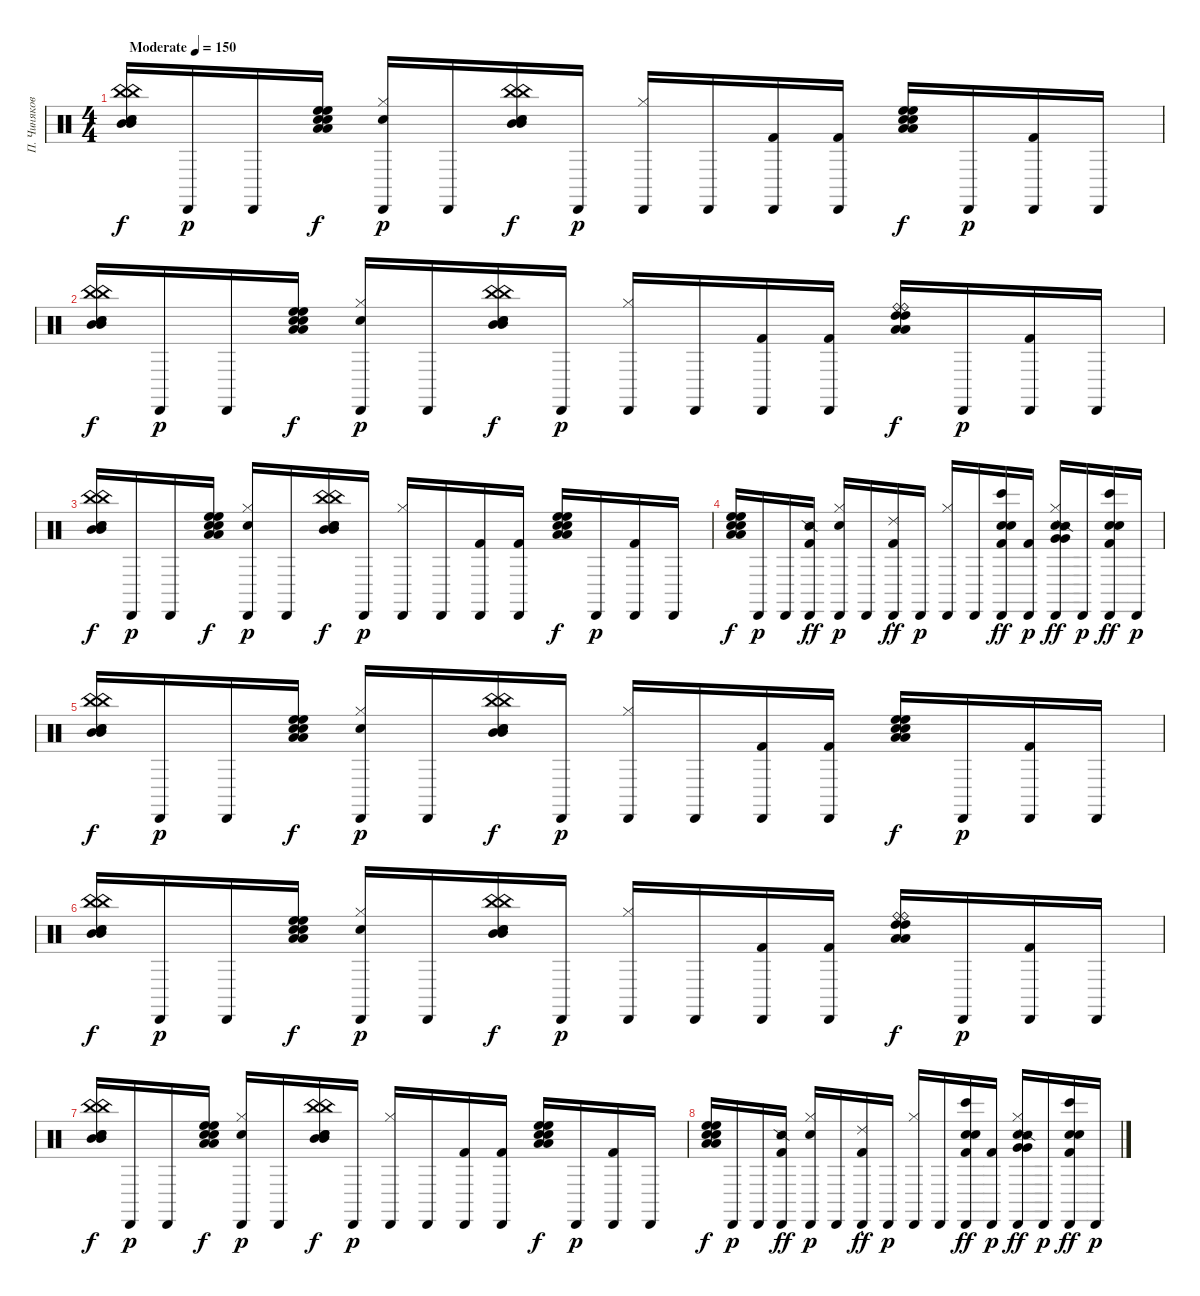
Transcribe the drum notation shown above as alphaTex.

\track ("П. Чиняков" "П. Чиняков") {instrument percussion}
\staff {score}
\articulation defaults
\ts (4 4)
\tempo (150 "Moderate")
\clef neutral
\ks c
("China (hit)" "Mid Tom (hit)" "Electric Snare (hit)" "China (hit)" "Mid Tom (hit)" "Electric Snare (hit)").16{dy f} "Cabasa (hit)".16{dy p} "Cabasa (hit)".16 ("High Floor Tom (hit)" "Low Tom (hit)" "Snare (hit) 2" "High Floor Tom (hit)" "Low Tom (hit)" "Snare (hit) 2").16{dy f} ("Hi-Hat (closed)" "Cabasa (hit)" "Snare (hit) 2").16{dy p} "Cabasa (hit)".16 ("China (hit)" "Mid Tom (hit)" "Electric Snare (hit)" "China (hit)" "Mid Tom (hit)" "Electric Snare (hit)").16{dy f} "Cabasa (hit)".16{dy p} ("Hi-Hat (closed)" "Cabasa (hit)").16 "Cabasa (hit)".16 ("Cabasa (hit)" "Kick (hit) 2").16 ("Cabasa (hit)" "Kick (hit) 2").16 ("High Floor Tom (hit)" "Low Tom (hit)" "Snare (hit) 2" "High Floor Tom (hit)" "Low Tom (hit)" "Snare (hit) 2").16{dy f} "Cabasa (hit)".16{dy p} ("Cabasa (hit)" "Kick (hit) 2").16 "Cabasa (hit)".16 |
("China (hit)" "Mid Tom (hit)" "Electric Snare (hit)" "China (hit)" "Mid Tom (hit)" "Electric Snare (hit)").16{dy f} "Cabasa (hit)".16{dy p} "Cabasa (hit)".16 ("High Floor Tom (hit)" "Low Tom (hit)" "Snare (hit) 2" "High Floor Tom (hit)" "Low Tom (hit)" "Snare (hit) 2").16{dy f} ("Hi-Hat (closed)" "Cabasa (hit)" "Snare (hit) 2").16{dy p} "Cabasa (hit)".16 ("China (hit)" "Mid Tom (hit)" "Electric Snare (hit)" "China (hit)" "Mid Tom (hit)" "Electric Snare (hit)").16{dy f} "Cabasa (hit)".16{dy p} ("Hi-Hat (closed)" "Cabasa (hit)").16 "Cabasa (hit)".16 ("Cabasa (hit)" "Kick (hit) 2").16 ("Cabasa (hit)" "Kick (hit) 2").16 ("Ride (bell)" "High Tom (hit)" "Low Floor Tom (hit)" "Ride (bell)" "High Tom (hit)" "Low Floor Tom (hit)").16{dy f} "Cabasa (hit)".16{dy p} ("Cabasa (hit)" "Kick (hit) 2").16 "Cabasa (hit)".16 |
("China (hit)" "Mid Tom (hit)" "Electric Snare (hit)" "China (hit)" "Mid Tom (hit)" "Electric Snare (hit)").16{dy f} "Cabasa (hit)".16{dy p} "Cabasa (hit)".16 ("High Floor Tom (hit)" "Low Tom (hit)" "Snare (hit) 2" "High Floor Tom (hit)" "Low Tom (hit)" "Snare (hit) 2").16{dy f} ("Hi-Hat (closed)" "Cabasa (hit)" "Snare (hit) 2").16{dy p} "Cabasa (hit)".16 ("China (hit)" "Mid Tom (hit)" "Electric Snare (hit)" "China (hit)" "Mid Tom (hit)" "Electric Snare (hit)").16{dy f} "Cabasa (hit)".16{dy p} ("Hi-Hat (closed)" "Cabasa (hit)").16 "Cabasa (hit)".16 ("Cabasa (hit)" "Kick (hit) 2").16 ("Cabasa (hit)" "Kick (hit) 2").16 ("High Floor Tom (hit)" "Low Tom (hit)" "Snare (hit) 2" "High Floor Tom (hit)" "Low Tom (hit)" "Snare (hit) 2").16{dy f} "Cabasa (hit)".16{dy p} ("Cabasa (hit)" "Kick (hit) 2").16 "Cabasa (hit)".16 |
("High Floor Tom (hit)" "Low Tom (hit)" "Snare (hit) 2" "High Floor Tom (hit)" "Low Tom (hit)" "Snare (hit) 2").16{dy f} "Cabasa (hit)".16{dy p} "Cabasa (hit)".16 ("Cabasa (hit)" "Kick (hit) 2" "Snare (side stick) 2").16{dy ff} ("Hi-Hat (closed)" "Cabasa (hit)" "Snare (hit) 2").16{dy p} "Cabasa (hit)".16 ("Cabasa (hit)" "Kick (hit) 2" "Ride (choke) 2").16{dy ff} "Cabasa (hit)".16{dy p} ("Hi-Hat (closed)" "Cabasa (hit)").16 "Cabasa (hit)".16 ("Electric Snare (hit)" "Electric Snare (hit)" "Cabasa (hit)" "Kick (hit) 2" "Bongo High (hit)").16{dy ff} ("Cabasa (hit)" "Kick (hit) 2").16{dy p} ("Very Low Tom (hit)" "Very Low Tom (hit)" "Hi-Hat (closed)" "Cabasa (hit)" "Snare (hit) 2" "Snare (side stick) 2").16{dy ff} "Cabasa (hit)".16{dy p} ("Electric Snare (hit)" "Electric Snare (hit)" "Cabasa (hit)" "Kick (hit) 2" "Bongo High (hit)").16{dy ff} "Cabasa (hit)".16{dy p} |
("China (hit)" "Mid Tom (hit)" "Electric Snare (hit)" "China (hit)" "Mid Tom (hit)" "Electric Snare (hit)").16{dy f} "Cabasa (hit)".16{dy p} "Cabasa (hit)".16 ("High Floor Tom (hit)" "Low Tom (hit)" "Snare (hit) 2" "High Floor Tom (hit)" "Low Tom (hit)" "Snare (hit) 2").16{dy f} ("Hi-Hat (closed)" "Cabasa (hit)" "Snare (hit) 2").16{dy p} "Cabasa (hit)".16 ("China (hit)" "Mid Tom (hit)" "Electric Snare (hit)" "China (hit)" "Mid Tom (hit)" "Electric Snare (hit)").16{dy f} "Cabasa (hit)".16{dy p} ("Hi-Hat (closed)" "Cabasa (hit)").16 "Cabasa (hit)".16 ("Cabasa (hit)" "Kick (hit) 2").16 ("Cabasa (hit)" "Kick (hit) 2").16 ("High Floor Tom (hit)" "Low Tom (hit)" "Snare (hit) 2" "High Floor Tom (hit)" "Low Tom (hit)" "Snare (hit) 2").16{dy f} "Cabasa (hit)".16{dy p} ("Cabasa (hit)" "Kick (hit) 2").16 "Cabasa (hit)".16 |
("China (hit)" "Mid Tom (hit)" "Electric Snare (hit)" "China (hit)" "Mid Tom (hit)" "Electric Snare (hit)").16{dy f} "Cabasa (hit)".16{dy p} "Cabasa (hit)".16 ("High Floor Tom (hit)" "Low Tom (hit)" "Snare (hit) 2" "High Floor Tom (hit)" "Low Tom (hit)" "Snare (hit) 2").16{dy f} ("Hi-Hat (closed)" "Cabasa (hit)" "Snare (hit) 2").16{dy p} "Cabasa (hit)".16 ("China (hit)" "Mid Tom (hit)" "Electric Snare (hit)" "China (hit)" "Mid Tom (hit)" "Electric Snare (hit)").16{dy f} "Cabasa (hit)".16{dy p} ("Hi-Hat (closed)" "Cabasa (hit)").16 "Cabasa (hit)".16 ("Cabasa (hit)" "Kick (hit) 2").16 ("Cabasa (hit)" "Kick (hit) 2").16 ("Ride (bell)" "High Tom (hit)" "Low Floor Tom (hit)" "Ride (bell)" "High Tom (hit)" "Low Floor Tom (hit)").16{dy f} "Cabasa (hit)".16{dy p} ("Cabasa (hit)" "Kick (hit) 2").16 "Cabasa (hit)".16 |
("China (hit)" "Mid Tom (hit)" "Electric Snare (hit)" "China (hit)" "Mid Tom (hit)" "Electric Snare (hit)").16{dy f} "Cabasa (hit)".16{dy p} "Cabasa (hit)".16 ("High Floor Tom (hit)" "Low Tom (hit)" "Snare (hit) 2" "High Floor Tom (hit)" "Low Tom (hit)" "Snare (hit) 2").16{dy f} ("Hi-Hat (closed)" "Cabasa (hit)" "Snare (hit) 2").16{dy p} "Cabasa (hit)".16 ("China (hit)" "Mid Tom (hit)" "Electric Snare (hit)" "China (hit)" "Mid Tom (hit)" "Electric Snare (hit)").16{dy f} "Cabasa (hit)".16{dy p} ("Hi-Hat (closed)" "Cabasa (hit)").16 "Cabasa (hit)".16 ("Cabasa (hit)" "Kick (hit) 2").16 ("Cabasa (hit)" "Kick (hit) 2").16 ("High Floor Tom (hit)" "Low Tom (hit)" "Snare (hit) 2" "High Floor Tom (hit)" "Low Tom (hit)" "Snare (hit) 2").16{dy f} "Cabasa (hit)".16{dy p} ("Cabasa (hit)" "Kick (hit) 2").16 "Cabasa (hit)".16 |
("High Floor Tom (hit)" "Low Tom (hit)" "Snare (hit) 2" "High Floor Tom (hit)" "Low Tom (hit)" "Snare (hit) 2").16{dy f} "Cabasa (hit)".16{dy p} "Cabasa (hit)".16 ("Cabasa (hit)" "Kick (hit) 2" "Snare (side stick) 2").16{dy ff} ("Hi-Hat (closed)" "Cabasa (hit)" "Snare (hit) 2").16{dy p} "Cabasa (hit)".16 ("Cabasa (hit)" "Kick (hit) 2" "Ride (choke) 2").16{dy ff} "Cabasa (hit)".16{dy p} ("Hi-Hat (closed)" "Cabasa (hit)").16 "Cabasa (hit)".16 ("Electric Snare (hit)" "Electric Snare (hit)" "Cabasa (hit)" "Kick (hit) 2" "Bongo High (hit)").16{dy ff} ("Cabasa (hit)" "Kick (hit) 2").16{dy p} ("Very Low Tom (hit)" "Very Low Tom (hit)" "Hi-Hat (closed)" "Cabasa (hit)" "Snare (hit) 2" "Snare (side stick) 2").16{dy ff} "Cabasa (hit)".16{dy p} ("Electric Snare (hit)" "Electric Snare (hit)" "Cabasa (hit)" "Kick (hit) 2" "Bongo High (hit)").16{dy ff} "Cabasa (hit)".16{dy p}
